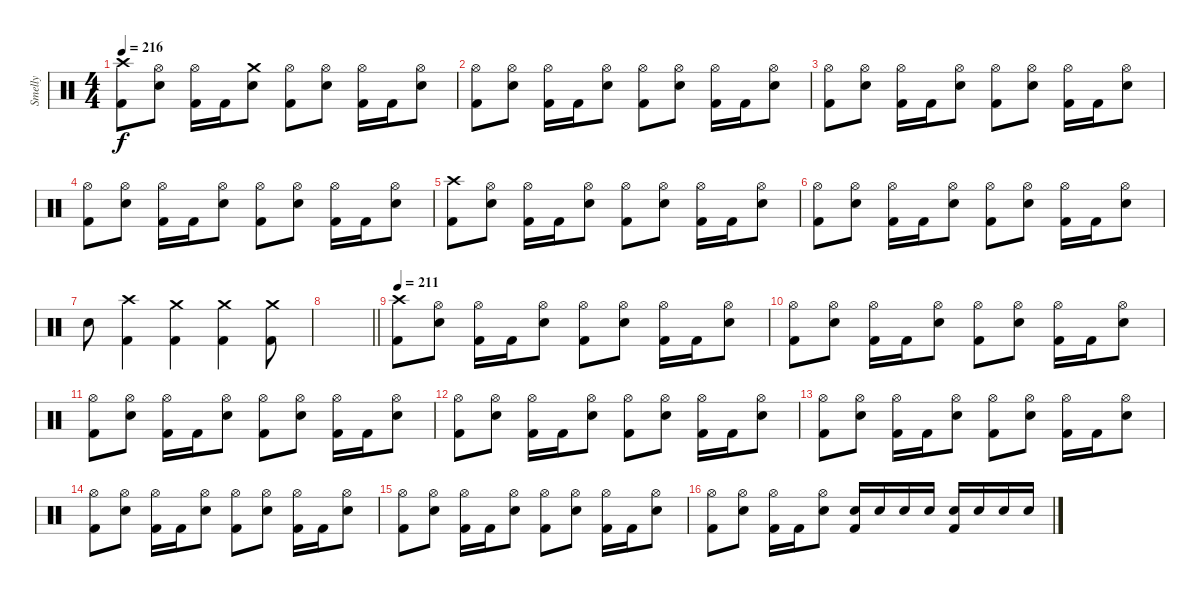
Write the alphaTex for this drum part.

\track ("Smelly" "Smelly") {instrument percussion}
\staff {score}
\articulation defaults
\ts (4 4)
\tempo 216
\clef neutral
\ks c
("Crash high (hit)" "Kick (hit) 2").8{dy f} ("Hi-Hat (open)" "Electric Snare (hit)").8 ("Hi-Hat (open)" "Kick (hit) 2").16 "Kick (hit) 2".16 ("Crash medium (hit)" "Electric Snare (hit)").8 ("Hi-Hat (open)" "Kick (hit) 2").8 ("Hi-Hat (open)" "Electric Snare (hit)").8 ("Hi-Hat (open)" "Kick (hit) 2").16 "Kick (hit) 2".16 ("Hi-Hat (open)" "Electric Snare (hit)").8 |
("Hi-Hat (open)" "Kick (hit) 2").8 ("Hi-Hat (open)" "Electric Snare (hit)").8 ("Hi-Hat (open)" "Kick (hit) 2").16 "Kick (hit) 2".16 ("Hi-Hat (open)" "Electric Snare (hit)").8 ("Hi-Hat (open)" "Kick (hit) 2").8 ("Hi-Hat (open)" "Electric Snare (hit)").8 ("Hi-Hat (open)" "Kick (hit) 2").16 "Kick (hit) 2".16 ("Hi-Hat (open)" "Electric Snare (hit)").8 |
("Hi-Hat (open)" "Kick (hit) 2").8 ("Hi-Hat (open)" "Electric Snare (hit)").8 ("Hi-Hat (open)" "Kick (hit) 2").16 "Kick (hit) 2".16 ("Hi-Hat (open)" "Electric Snare (hit)").8 ("Hi-Hat (open)" "Kick (hit) 2").8 ("Hi-Hat (open)" "Electric Snare (hit)").8 ("Hi-Hat (open)" "Kick (hit) 2").16 "Kick (hit) 2".16 ("Hi-Hat (open)" "Electric Snare (hit)").8 |
("Hi-Hat (open)" "Kick (hit) 2").8 ("Hi-Hat (open)" "Electric Snare (hit)").8 ("Hi-Hat (open)" "Kick (hit) 2").16 "Kick (hit) 2".16 ("Hi-Hat (open)" "Electric Snare (hit)").8 ("Hi-Hat (open)" "Kick (hit) 2").8 ("Hi-Hat (open)" "Electric Snare (hit)").8 ("Hi-Hat (open)" "Kick (hit) 2").16 "Kick (hit) 2".16 ("Hi-Hat (open)" "Electric Snare (hit)").8 |
("Crash high (hit)" "Kick (hit) 2").8 ("Hi-Hat (open)" "Electric Snare (hit)").8 ("Hi-Hat (open)" "Kick (hit) 2").16 "Kick (hit) 2".16 ("Hi-Hat (open)" "Electric Snare (hit)").8 ("Hi-Hat (open)" "Kick (hit) 2").8 ("Hi-Hat (open)" "Electric Snare (hit)").8 ("Hi-Hat (open)" "Kick (hit) 2").16 "Kick (hit) 2".16 ("Hi-Hat (open)" "Electric Snare (hit)").8 |
("Hi-Hat (open)" "Kick (hit) 2").8 ("Hi-Hat (open)" "Electric Snare (hit)").8 ("Hi-Hat (open)" "Kick (hit) 2").16 "Kick (hit) 2".16 ("Hi-Hat (open)" "Electric Snare (hit)").8 ("Hi-Hat (open)" "Kick (hit) 2").8 ("Hi-Hat (open)" "Electric Snare (hit)").8 ("Hi-Hat (open)" "Kick (hit) 2").16 "Kick (hit) 2".16 ("Hi-Hat (open)" "Electric Snare (hit)").8 |
"Electric Snare (hit)".8 ("Crash high (hit)" "Kick (hit) 2").4 ("Crash medium (hit)" "Kick (hit) 2").4 ("Crash medium (hit)" "Kick (hit) 2").4 ("Crash medium (hit)" "Kick (hit) 2").8 |
\barLineRight lightlight
|
\section ("" "")
\tempo 211
("Crash high (hit)" "Kick (hit) 2").8 ("Hi-Hat (open)" "Electric Snare (hit)").8 ("Hi-Hat (open)" "Kick (hit) 2").16 "Kick (hit) 2".16 ("Hi-Hat (open)" "Electric Snare (hit)").8 ("Hi-Hat (open)" "Kick (hit) 2").8 ("Hi-Hat (open)" "Electric Snare (hit)").8 ("Hi-Hat (open)" "Kick (hit) 2").16 "Kick (hit) 2".16 ("Hi-Hat (open)" "Electric Snare (hit)").8 |
("Hi-Hat (open)" "Kick (hit) 2").8 ("Hi-Hat (open)" "Electric Snare (hit)").8 ("Hi-Hat (open)" "Kick (hit) 2").16 "Kick (hit) 2".16 ("Hi-Hat (open)" "Electric Snare (hit)").8 ("Hi-Hat (open)" "Kick (hit) 2").8 ("Hi-Hat (open)" "Electric Snare (hit)").8 ("Hi-Hat (open)" "Kick (hit) 2").16 "Kick (hit) 2".16 ("Hi-Hat (open)" "Electric Snare (hit)").8 |
("Hi-Hat (open)" "Kick (hit) 2").8 ("Hi-Hat (open)" "Electric Snare (hit)").8 ("Hi-Hat (open)" "Kick (hit) 2").16 "Kick (hit) 2".16 ("Hi-Hat (open)" "Electric Snare (hit)").8 ("Hi-Hat (open)" "Kick (hit) 2").8 ("Hi-Hat (open)" "Electric Snare (hit)").8 ("Hi-Hat (open)" "Kick (hit) 2").16 "Kick (hit) 2".16 ("Hi-Hat (open)" "Electric Snare (hit)").8 |
("Hi-Hat (open)" "Kick (hit) 2").8 ("Hi-Hat (open)" "Electric Snare (hit)").8 ("Hi-Hat (open)" "Kick (hit) 2").16 "Kick (hit) 2".16 ("Hi-Hat (open)" "Electric Snare (hit)").8 ("Hi-Hat (open)" "Kick (hit) 2").8 ("Hi-Hat (open)" "Electric Snare (hit)").8 ("Hi-Hat (open)" "Kick (hit) 2").16 "Kick (hit) 2".16 ("Hi-Hat (open)" "Electric Snare (hit)").8 |
("Hi-Hat (open)" "Kick (hit) 2").8 ("Hi-Hat (open)" "Electric Snare (hit)").8 ("Hi-Hat (open)" "Kick (hit) 2").16 "Kick (hit) 2".16 ("Hi-Hat (open)" "Electric Snare (hit)").8 ("Hi-Hat (open)" "Kick (hit) 2").8 ("Hi-Hat (open)" "Electric Snare (hit)").8 ("Hi-Hat (open)" "Kick (hit) 2").16 "Kick (hit) 2".16 ("Hi-Hat (open)" "Electric Snare (hit)").8 |
("Hi-Hat (open)" "Kick (hit) 2").8 ("Hi-Hat (open)" "Electric Snare (hit)").8 ("Hi-Hat (open)" "Kick (hit) 2").16 "Kick (hit) 2".16 ("Hi-Hat (open)" "Electric Snare (hit)").8 ("Hi-Hat (open)" "Kick (hit) 2").8 ("Hi-Hat (open)" "Electric Snare (hit)").8 ("Hi-Hat (open)" "Kick (hit) 2").16 "Kick (hit) 2".16 ("Hi-Hat (open)" "Electric Snare (hit)").8 |
("Hi-Hat (open)" "Kick (hit) 2").8 ("Hi-Hat (open)" "Electric Snare (hit)").8 ("Hi-Hat (open)" "Kick (hit) 2").16 "Kick (hit) 2".16 ("Hi-Hat (open)" "Electric Snare (hit)").8 ("Hi-Hat (open)" "Kick (hit) 2").8 ("Hi-Hat (open)" "Electric Snare (hit)").8 ("Hi-Hat (open)" "Kick (hit) 2").16 "Kick (hit) 2".16 ("Hi-Hat (open)" "Electric Snare (hit)").8 |
("Hi-Hat (open)" "Kick (hit) 2").8 ("Hi-Hat (open)" "Electric Snare (hit)").8 ("Hi-Hat (open)" "Kick (hit) 2").16 "Kick (hit) 2".16 ("Hi-Hat (open)" "Electric Snare (hit)").8 ("Electric Snare (hit)" "Kick (hit) 2").16 "Electric Snare (hit)".16 "Electric Snare (hit)".16 "Electric Snare (hit)".16 ("Electric Snare (hit)" "Kick (hit) 2").16 "Electric Snare (hit)".16 "Electric Snare (hit)".16 "Electric Snare (hit)".16
